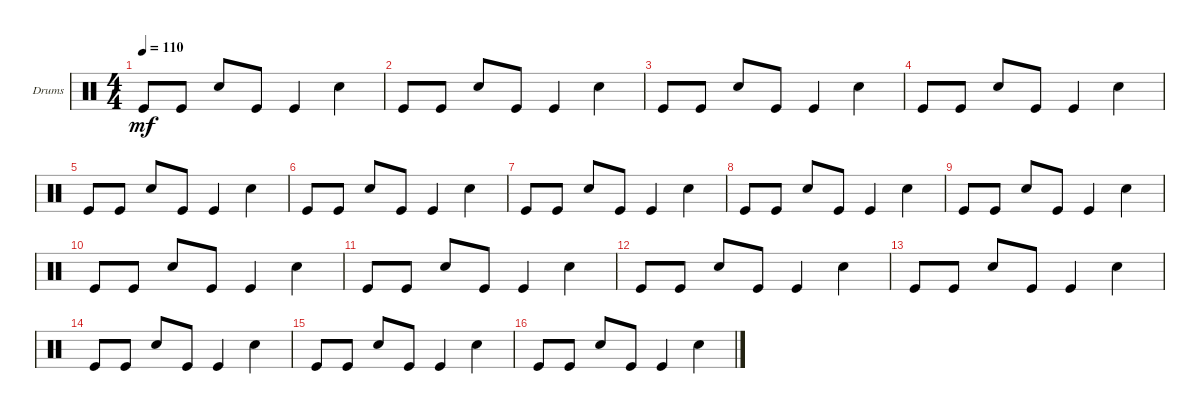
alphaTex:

\defaultSystemsLayout 4
\bracketExtendMode groupsimilarinstruments
\firstSystemTrackNameOrientation horizontal
\otherSystemsTrackNameOrientation horizontal
\track ("Drumkit" "Drums") {instrument percussion}
\staff {score}
\articulation defaults
\ts (4 4)
\tempo 110
\clef neutral
\ks c "Kick (hit)".8{dy mf} "Kick (hit)".8 "Snare (hit) 2".8 "Kick (hit)".8 "Kick (hit)".4 "Snare (hit) 2".4
|
"Kick (hit)".8 "Kick (hit)".8 "Snare (hit) 2".8 "Kick (hit)".8 "Kick (hit)".4 "Snare (hit) 2".4 |
"Kick (hit)".8 "Kick (hit)".8 "Snare (hit) 2".8 "Kick (hit)".8 "Kick (hit)".4 "Snare (hit) 2".4 |
"Kick (hit)".8 "Kick (hit)".8 "Snare (hit) 2".8 "Kick (hit)".8 "Kick (hit)".4 "Snare (hit) 2".4 |
"Kick (hit)".8 "Kick (hit)".8 "Snare (hit) 2".8 "Kick (hit)".8 "Kick (hit)".4 "Snare (hit) 2".4 |
"Kick (hit)".8 "Kick (hit)".8 "Snare (hit) 2".8 "Kick (hit)".8 "Kick (hit)".4 "Snare (hit) 2".4 |
"Kick (hit)".8 "Kick (hit)".8 "Snare (hit) 2".8 "Kick (hit)".8 "Kick (hit)".4 "Snare (hit) 2".4 |
"Kick (hit)".8 "Kick (hit)".8 "Snare (hit) 2".8 "Kick (hit)".8 "Kick (hit)".4 "Snare (hit) 2".4 |
"Kick (hit)".8 "Kick (hit)".8 "Snare (hit) 2".8 "Kick (hit)".8 "Kick (hit)".4 "Snare (hit) 2".4 |
"Kick (hit)".8 "Kick (hit)".8 "Snare (hit) 2".8 "Kick (hit)".8 "Kick (hit)".4 "Snare (hit) 2".4 |
"Kick (hit)".8 "Kick (hit)".8 "Snare (hit) 2".8 "Kick (hit)".8 "Kick (hit)".4 "Snare (hit) 2".4 |
"Kick (hit)".8 "Kick (hit)".8 "Snare (hit) 2".8 "Kick (hit)".8 "Kick (hit)".4 "Snare (hit) 2".4 |
"Kick (hit)".8 "Kick (hit)".8 "Snare (hit) 2".8 "Kick (hit)".8 "Kick (hit)".4 "Snare (hit) 2".4 |
"Kick (hit)".8 "Kick (hit)".8 "Snare (hit) 2".8 "Kick (hit)".8 "Kick (hit)".4 "Snare (hit) 2".4 |
"Kick (hit)".8 "Kick (hit)".8 "Snare (hit) 2".8 "Kick (hit)".8 "Kick (hit)".4 "Snare (hit) 2".4 |
"Kick (hit)".8 "Kick (hit)".8 "Snare (hit) 2".8 "Kick (hit)".8 "Kick (hit)".4 "Snare (hit) 2".4
